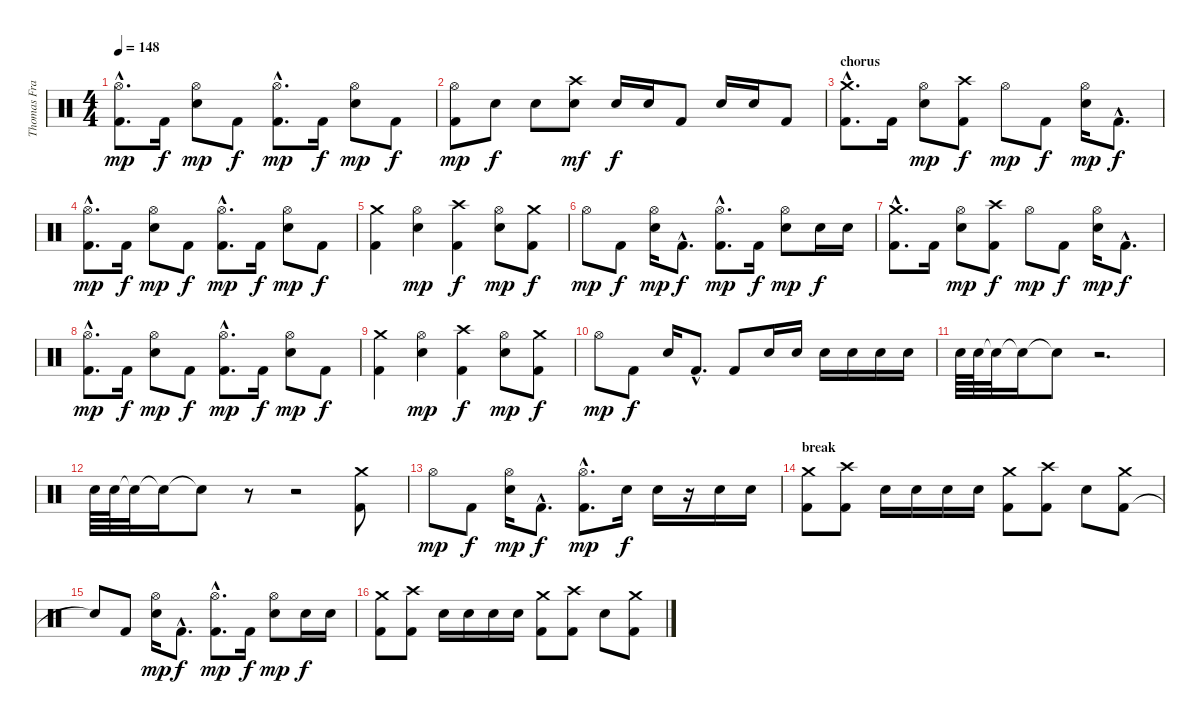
\track ("Thomas Franke" "Thomas Fra") {instrument percussion}
\staff {score}
\articulation defaults
\ts (4 4)
\tempo 148
\clef neutral
\ks c
("Kick (hit) 2"{hac} "Hi-Hat (open)"{hac}).8{d dy mp} "Kick (hit) 2".16{dy f} ("Hi-Hat (open)" "Snare (hit) 2").8{dy mp} "Kick (hit) 2".8{dy f} ("Kick (hit) 2"{hac} "Hi-Hat (open)"{hac}).8{d dy mp} "Kick (hit) 2".16{dy f} ("Hi-Hat (open)" "Snare (hit) 2").8{dy mp} "Kick (hit) 2".8{dy f} |
("Kick (hit) 2" "Hi-Hat (open)").8{dy mp} "Snare (hit) 2".8{dy f} "Snare (hit) 2".8 ("Crash high (hit)" "Snare (hit) 2").8{dy mf} "Snare (hit) 2".16{dy f} "Snare (hit) 2".16 "Kick (hit) 2".8 "Snare (hit) 2".16 "Snare (hit) 2".16 "Kick (hit) 2".8 |
\section ("" "chorus")
("Kick (hit) 2"{hac} "Crash medium (hit)"{hac}).8{d} "Kick (hit) 2".16 ("Hi-Hat (open)" "Snare (hit) 2").8{dy mp} ("Kick (hit) 2" "Crash high (hit)").8{dy f} "Hi-Hat (open)".8{dy mp} "Kick (hit) 2".8{dy f} ("Hi-Hat (open)" "Snare (hit) 2").16{dy mp} "Kick (hit) 2"{hac}.8{d dy f} |
("Kick (hit) 2"{hac} "Hi-Hat (open)"{hac}).8{d dy mp} "Kick (hit) 2".16{dy f} ("Hi-Hat (open)" "Snare (hit) 2").8{dy mp} "Kick (hit) 2".8{dy f} ("Kick (hit) 2"{hac} "Hi-Hat (open)"{hac}).8{d dy mp} "Kick (hit) 2".16{dy f} ("Hi-Hat (open)" "Snare (hit) 2").8{dy mp} "Kick (hit) 2".8{dy f} |
("Kick (hit) 2" "Crash medium (hit)").4 ("Hi-Hat (open)" "Snare (hit) 2").4{dy mp} ("Kick (hit) 2" "Crash high (hit)").4{dy f} ("Hi-Hat (open)" "Snare (hit) 2").8{dy mp} ("Kick (hit) 2" "Crash medium (hit)").8{dy f} |
"Hi-Hat (open)".8{dy mp} "Kick (hit) 2".8{dy f} ("Hi-Hat (open)" "Snare (hit) 2").16{dy mp} "Kick (hit) 2"{hac}.8{d dy f} ("Kick (hit) 2"{hac} "Hi-Hat (open)"{hac}).8{d dy mp} "Kick (hit) 2".16{dy f} ("Hi-Hat (open)" "Snare (hit) 2").8{dy mp} "Snare (hit) 2".16{dy f} "Snare (hit) 2".16 |
("Kick (hit) 2"{hac} "Crash medium (hit)"{hac}).8{d} "Kick (hit) 2".16 ("Hi-Hat (open)" "Snare (hit) 2").8{dy mp} ("Kick (hit) 2" "Crash high (hit)").8{dy f} "Hi-Hat (open)".8{dy mp} "Kick (hit) 2".8{dy f} ("Hi-Hat (open)" "Snare (hit) 2").16{dy mp} "Kick (hit) 2"{hac}.8{d dy f} |
("Kick (hit) 2"{hac} "Hi-Hat (open)"{hac}).8{d dy mp} "Kick (hit) 2".16{dy f} ("Hi-Hat (open)" "Snare (hit) 2").8{dy mp} "Kick (hit) 2".8{dy f} ("Kick (hit) 2"{hac} "Hi-Hat (open)"{hac}).8{d dy mp} "Kick (hit) 2".16{dy f} ("Hi-Hat (open)" "Snare (hit) 2").8{dy mp} "Kick (hit) 2".8{dy f} |
("Kick (hit) 2" "Crash medium (hit)").4 ("Hi-Hat (open)" "Snare (hit) 2").4{dy mp} ("Kick (hit) 2" "Crash high (hit)").4{dy f} ("Hi-Hat (open)" "Snare (hit) 2").8{dy mp} ("Kick (hit) 2" "Crash medium (hit)").8{dy f} |
"Hi-Hat (open)".8{dy mp} "Kick (hit) 2".8{dy f} "Snare (hit) 2".16 "Kick (hit) 2"{hac}.8{d} "Kick (hit) 2".8 "Snare (hit) 2".16 "Snare (hit) 2".16 "Snare (hit) 2".16 "Snare (hit) 2".16 "Snare (hit) 2".16 "Snare (hit) 2".16 |
"Snare (hit) 2".64 "Snare (hit) 2".64 "Snare (hit)"{t}.32 "Snare (hit)"{t}.16 "Snare (hit)"{t}.8 r.2{d} |
"Snare (hit) 2".64 "Snare (hit) 2".64 "Snare (hit)"{t}.32 "Snare (hit)"{t}.16 "Snare (hit)"{t}.8 r.8 r.2 ("Kick (hit) 2" "Crash medium (hit)").8 |
"Hi-Hat (open)".8{dy mp} "Kick (hit) 2".8{dy f} ("Hi-Hat (open)" "Snare (hit) 2").16{dy mp} "Kick (hit) 2"{hac}.8{d dy f} ("Kick (hit) 2"{hac} "Hi-Hat (open)"{hac}).8{d dy mp} "Snare (hit) 2".16{dy f} "Snare (hit) 2".16 r.16 "Snare (hit) 2".16 "Snare (hit) 2".16 |
\section ("" "break")
("Kick (hit) 2" "Crash medium (hit)").8 ("Kick (hit) 2" "Crash high (hit)").8 "Snare (hit) 2".16 "Snare (hit) 2".16 "Snare (hit) 2".16 "Snare (hit) 2".16 ("Kick (hit) 2" "Crash medium (hit)").8 ("Kick (hit) 2" "Crash high (hit)").8 "Snare (hit) 2".8 ("Kick (hit) 2" "Crash medium (hit)").8 |
"Snare (hit)"{t}.8 "Kick (hit) 2".8 ("Hi-Hat (open)" "Snare (hit) 2").16{dy mp} "Kick (hit) 2"{hac}.8{d dy f} ("Kick (hit) 2"{hac} "Hi-Hat (open)"{hac}).8{d dy mp} "Kick (hit) 2".16{dy f} ("Hi-Hat (open)" "Snare (hit) 2").8{dy mp} "Snare (hit) 2".16{dy f} "Snare (hit) 2".16 |
("Kick (hit) 2" "Crash medium (hit)").8 ("Kick (hit) 2" "Crash high (hit)").8 "Snare (hit) 2".16 "Snare (hit) 2".16 "Snare (hit) 2".16 "Snare (hit) 2".16 ("Kick (hit) 2" "Crash medium (hit)").8 ("Kick (hit) 2" "Crash high (hit)").8 "Snare (hit) 2".8 ("Kick (hit) 2" "Crash medium (hit)").8
